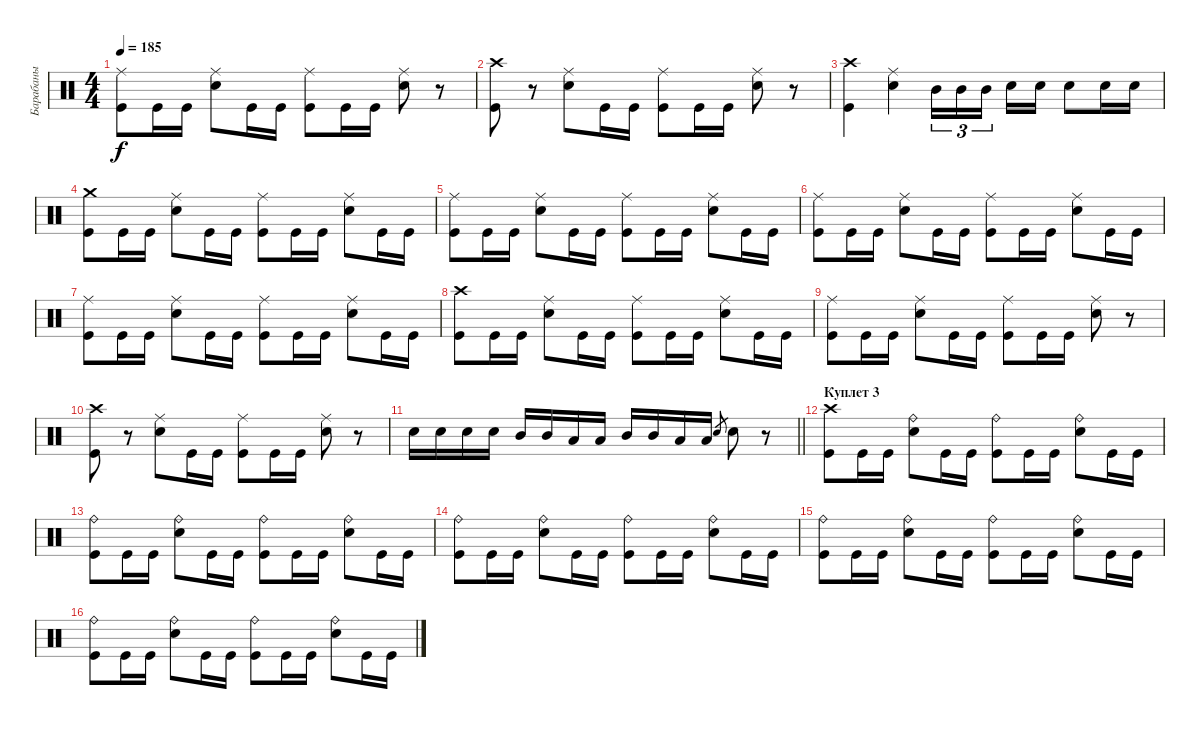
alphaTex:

\track ("Барабаны" "Барабаны") {instrument percussion}
\staff {score}
\articulation defaults
\ts (4 4)
\tempo 185
\clef neutral
\ks c
("Kick (hit)" "Ride (middle)").8{dy f} "Kick (hit)".16 "Kick (hit)".16 ("Snare (hit) 2" "Ride (middle)").8 "Kick (hit)".16 "Kick (hit)".16 ("Kick (hit)" "Ride (middle)").8 "Kick (hit)".16 "Kick (hit)".16 ("Snare (hit) 2" "Ride (middle)").8 r.8 |
("Kick (hit)" "Crash high (hit)").8 r.8 ("Snare (hit) 2" "Ride (middle)").8 "Kick (hit)".16 "Kick (hit)".16 ("Kick (hit)" "Ride (middle)").8 "Kick (hit)".16 "Kick (hit)".16 ("Snare (hit) 2" "Ride (middle)").8 r.8 |
("Kick (hit)" "Crash high (hit)").4 ("Snare (hit) 2" "Ride (middle)").4 "Mid Tom (hit)".16{tu (3 2)} "Mid Tom (hit)".16{tu (3 2)} "Mid Tom (hit)".16{tu (3 2) beam splitsecondary} "Snare (hit) 2".16 "Snare (hit) 2".16 "Snare (hit) 2".8 "Snare (hit) 2".16 "Snare (hit) 2".16 |
("Kick (hit)" "Crash medium (hit)").8 "Kick (hit)".16 "Kick (hit)".16 ("Snare (hit) 2" "Ride (middle)").8 "Kick (hit)".16 "Kick (hit)".16 ("Kick (hit)" "Ride (middle)").8 "Kick (hit)".16 "Kick (hit)".16 ("Snare (hit) 2" "Ride (middle)").8 "Kick (hit)".16 "Kick (hit)".16 |
("Kick (hit)" "Ride (middle)").8 "Kick (hit)".16 "Kick (hit)".16 ("Snare (hit) 2" "Ride (middle)").8 "Kick (hit)".16 "Kick (hit)".16 ("Kick (hit)" "Ride (middle)").8 "Kick (hit)".16 "Kick (hit)".16 ("Snare (hit) 2" "Ride (middle)").8 "Kick (hit)".16 "Kick (hit)".16 |
("Kick (hit)" "Ride (middle)").8 "Kick (hit)".16 "Kick (hit)".16 ("Snare (hit) 2" "Ride (middle)").8 "Kick (hit)".16 "Kick (hit)".16 ("Kick (hit)" "Ride (middle)").8 "Kick (hit)".16 "Kick (hit)".16 ("Snare (hit) 2" "Ride (middle)").8 "Kick (hit)".16 "Kick (hit)".16 |
("Kick (hit)" "Ride (middle)").8 "Kick (hit)".16 "Kick (hit)".16 ("Snare (hit) 2" "Ride (middle)").8 "Kick (hit)".16 "Kick (hit)".16 ("Kick (hit)" "Ride (middle)").8 "Kick (hit)".16 "Kick (hit)".16 ("Snare (hit) 2" "Ride (middle)").8 "Kick (hit)".16 "Kick (hit)".16 |
("Kick (hit)" "Crash high (hit)").8 "Kick (hit)".16 "Kick (hit)".16 ("Snare (hit) 2" "Ride (middle)").8 "Kick (hit)".16 "Kick (hit)".16 ("Kick (hit)" "Ride (middle)").8 "Kick (hit)".16 "Kick (hit)".16 ("Snare (hit) 2" "Ride (middle)").8 "Kick (hit)".16 "Kick (hit)".16 |
("Kick (hit)" "Ride (middle)").8 "Kick (hit)".16 "Kick (hit)".16 ("Snare (hit) 2" "Ride (middle)").8 "Kick (hit)".16 "Kick (hit)".16 ("Kick (hit)" "Ride (middle)").8 "Kick (hit)".16 "Kick (hit)".16 ("Snare (hit) 2" "Ride (middle)").8 r.8 |
("Kick (hit)" "Crash high (hit)").8 r.8 ("Snare (hit) 2" "Ride (middle)").8 "Kick (hit)".16 "Kick (hit)".16 ("Kick (hit)" "Ride (middle)").8 "Kick (hit)".16 "Kick (hit)".16 ("Snare (hit) 2" "Ride (middle)").8 r.8 |
\barLineRight lightlight "Snare (hit) 2".16 "Snare (hit) 2".16 "Snare (hit) 2".16 "Snare (hit) 2".16 "Mid Tom (hit)".16 "Mid Tom (hit)".16 "Low Tom (hit)".16 "Low Tom (hit)".16 "Mid Tom (hit)".16 "Mid Tom (hit)".16 "Low Tom (hit)".16 "Low Tom (hit)".16 "Snare (hit) 2".8{gr} "Snare (hit) 2".8
r.8 |
\section ("" "Куплет 3")
("Kick (hit)" "Crash high (hit)").8 "Kick (hit)".16 "Kick (hit)".16 ("Snare (hit) 2" "Ride (bell)").8 "Kick (hit)".16 "Kick (hit)".16 ("Kick (hit)" "Ride (bell)").8 "Kick (hit)".16 "Kick (hit)".16 ("Snare (hit) 2" "Ride (bell)").8 "Kick (hit)".16 "Kick (hit)".16 |
("Kick (hit)" "Ride (bell)").8 "Kick (hit)".16 "Kick (hit)".16 ("Snare (hit) 2" "Ride (bell)").8 "Kick (hit)".16 "Kick (hit)".16 ("Kick (hit)" "Ride (bell)").8 "Kick (hit)".16 "Kick (hit)".16 ("Snare (hit) 2" "Ride (bell)").8 "Kick (hit)".16 "Kick (hit)".16 |
("Kick (hit)" "Ride (bell)").8 "Kick (hit)".16 "Kick (hit)".16 ("Snare (hit) 2" "Ride (bell)").8 "Kick (hit)".16 "Kick (hit)".16 ("Kick (hit)" "Ride (bell)").8 "Kick (hit)".16 "Kick (hit)".16 ("Snare (hit) 2" "Ride (bell)").8 "Kick (hit)".16 "Kick (hit)".16 |
("Kick (hit)" "Ride (bell)").8 "Kick (hit)".16 "Kick (hit)".16 ("Snare (hit) 2" "Ride (bell)").8 "Kick (hit)".16 "Kick (hit)".16 ("Kick (hit)" "Ride (bell)").8 "Kick (hit)".16 "Kick (hit)".16 ("Snare (hit) 2" "Ride (bell)").8 "Kick (hit)".16 "Kick (hit)".16 |
("Kick (hit)" "Ride (bell)").8 "Kick (hit)".16 "Kick (hit)".16 ("Snare (hit) 2" "Ride (bell)").8 "Kick (hit)".16 "Kick (hit)".16 ("Kick (hit)" "Ride (bell)").8 "Kick (hit)".16 "Kick (hit)".16 ("Snare (hit) 2" "Ride (bell)").8 "Kick (hit)".16 "Kick (hit)".16
